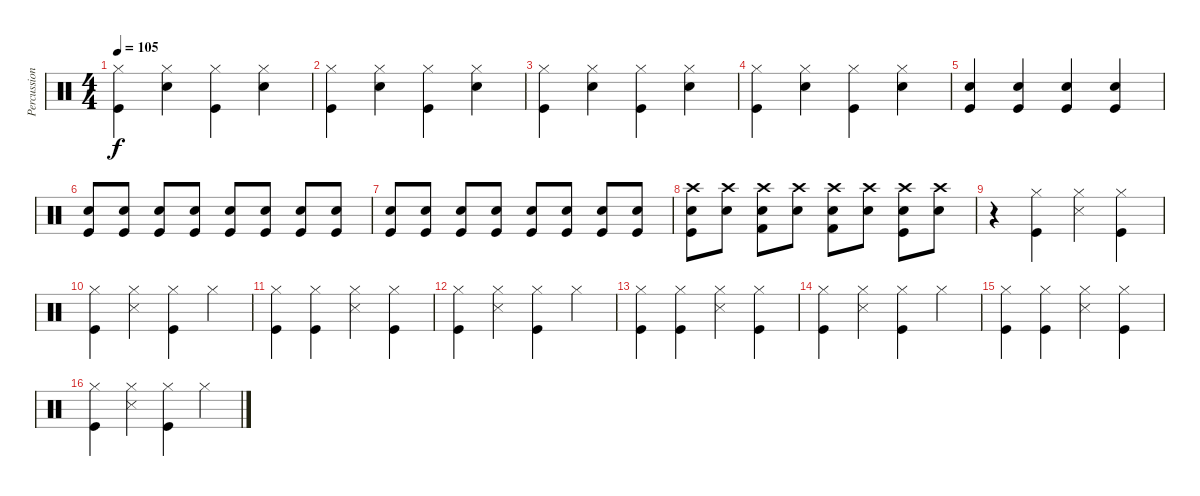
\track ("Percussion" "Percussion") {instrument percussion}
\staff {score}
\articulation defaults
\ts (4 4)
\tempo 105
\clef neutral
\ks c
("Hi-Hat (closed)" "Kick (hit)").4{dy f} ("Hi-Hat (closed)" "Snare (hit) 2").4 ("Hi-Hat (closed)" "Kick (hit)").4 ("Hi-Hat (closed)" "Snare (hit) 2").4 |
("Hi-Hat (closed)" "Kick (hit)").4 ("Hi-Hat (closed)" "Snare (hit) 2").4 ("Hi-Hat (closed)" "Kick (hit)").4 ("Hi-Hat (closed)" "Snare (hit) 2").4 |
("Hi-Hat (closed)" "Kick (hit)").4 ("Hi-Hat (closed)" "Snare (hit) 2").4 ("Hi-Hat (closed)" "Kick (hit)").4 ("Hi-Hat (closed)" "Snare (hit) 2").4 |
("Hi-Hat (closed)" "Kick (hit)").4 ("Hi-Hat (closed)" "Snare (hit) 2").4 ("Hi-Hat (closed)" "Kick (hit)").4 ("Hi-Hat (closed)" "Snare (hit) 2").4 |
("Snare (hit) 2" "Kick (hit)").4 ("Snare (hit) 2" "Kick (hit)").4 ("Snare (hit) 2" "Kick (hit)").4 ("Snare (hit) 2" "Kick (hit)").4 |
("Snare (hit) 2" "Kick (hit)").8 ("Snare (hit) 2" "Kick (hit)").8 ("Snare (hit) 2" "Kick (hit)").8 ("Snare (hit) 2" "Kick (hit)").8 ("Snare (hit) 2" "Kick (hit)").8 ("Snare (hit) 2" "Kick (hit)").8 ("Snare (hit) 2" "Kick (hit)").8 ("Snare (hit) 2" "Kick (hit)").8 |
("Snare (hit) 2" "Kick (hit)").8 ("Snare (hit) 2" "Kick (hit)").8 ("Snare (hit) 2" "Kick (hit)").8 ("Snare (hit) 2" "Kick (hit)").8 ("Snare (hit) 2" "Kick (hit)").8 ("Snare (hit) 2" "Kick (hit)").8 ("Snare (hit) 2" "Kick (hit)").8 ("Snare (hit) 2" "Kick (hit)").8 |
("Crash high (hit)" "Snare (hit) 2" "Kick (hit)").8 ("Crash high (hit)" "Snare (hit) 2").8 ("Crash high (hit)" "Snare (hit) 2" "Kick (hit) 2").8 ("Crash high (hit)" "Snare (hit) 2").8 ("Crash high (hit)" "Snare (hit) 2" "Kick (hit) 2").8 ("Crash high (hit)" "Snare (hit) 2").8 ("Crash high (hit)" "Snare (hit) 2" "Kick (hit)").8 ("Crash high (hit)" "Snare (hit) 2").8 |
r.4 ("Hi-Hat (closed)" "Kick (hit)").4 ("Hi-Hat (closed)" "Snare (side stick) 3").4 ("Hi-Hat (closed)" "Kick (hit)").4 |
("Hi-Hat (closed)" "Kick (hit)").4 ("Hi-Hat (closed)" "Snare (side stick) 3").4 ("Hi-Hat (closed)" "Kick (hit)").4 "Hi-Hat (closed)".4 |
("Hi-Hat (closed)" "Kick (hit)").4 ("Hi-Hat (closed)" "Kick (hit)").4 ("Hi-Hat (closed)" "Snare (side stick) 3").4 ("Hi-Hat (closed)" "Kick (hit)").4 |
("Hi-Hat (closed)" "Kick (hit)").4 ("Hi-Hat (closed)" "Snare (side stick) 3").4 ("Hi-Hat (closed)" "Kick (hit)").4 "Hi-Hat (closed)".4 |
("Hi-Hat (closed)" "Kick (hit)").4 ("Hi-Hat (closed)" "Kick (hit)").4 ("Hi-Hat (closed)" "Snare (side stick) 3").4 ("Hi-Hat (closed)" "Kick (hit)").4 |
("Hi-Hat (closed)" "Kick (hit)").4 ("Hi-Hat (closed)" "Snare (side stick) 3").4 ("Hi-Hat (closed)" "Kick (hit)").4 "Hi-Hat (closed)".4 |
("Hi-Hat (closed)" "Kick (hit)").4 ("Hi-Hat (closed)" "Kick (hit)").4 ("Hi-Hat (closed)" "Snare (side stick) 3").4 ("Hi-Hat (closed)" "Kick (hit)").4 |
("Hi-Hat (closed)" "Kick (hit)").4 ("Hi-Hat (closed)" "Snare (side stick) 3").4 ("Hi-Hat (closed)" "Kick (hit)").4 "Hi-Hat (closed)".4
